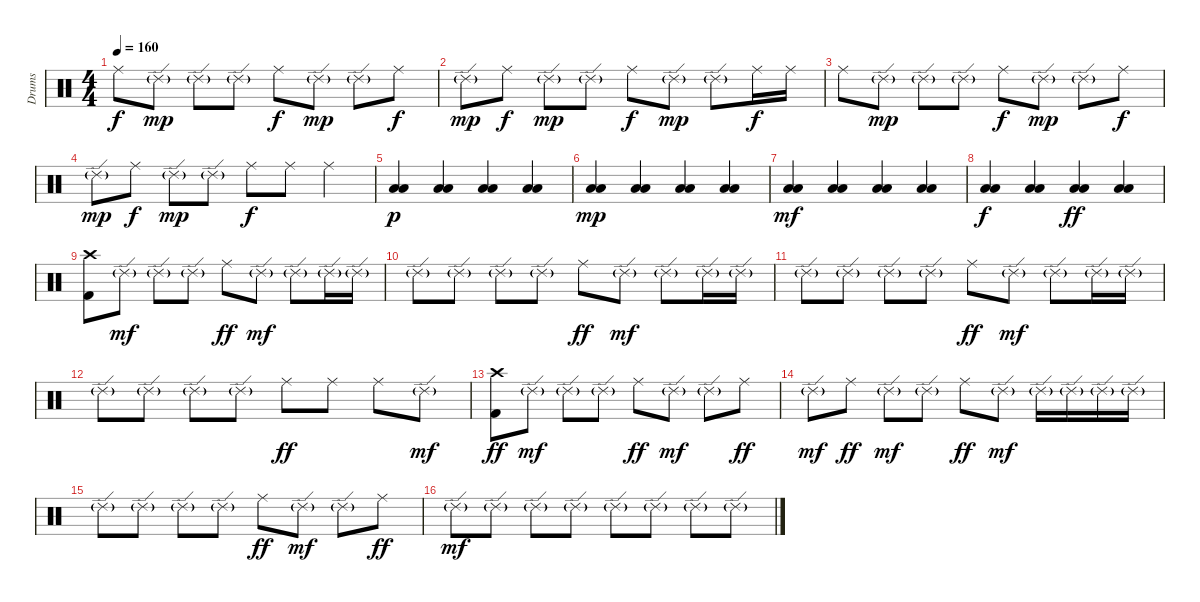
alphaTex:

\track ("Drums" "Drums") {instrument percussion}
\staff {score}
\articulation defaults
\ts (4 4)
\tempo 160
\clef neutral
\ks c "Ride (middle)".8{dy f} "Ride (edge) 2"{g}.8{dy mp} "Ride (edge) 2"{g}.8 "Ride (edge) 2"{g}.8 "Ride (middle)".8{dy f} "Ride (edge) 2"{g}.8{dy mp} "Ride (edge) 2"{g}.8 "Ride (middle)".8{dy f}
|
"Ride (edge) 2"{g}.8{dy mp} "Ride (middle)".8{dy f} "Ride (edge) 2"{g}.8{dy mp} "Ride (edge) 2"{g}.8 "Ride (middle)".8{dy f} "Ride (edge) 2"{g}.8{dy mp} "Ride (edge) 2"{g}.8 "Ride (middle)".16{dy f} "Ride (middle)".16 |
"Ride (middle)".8 "Ride (edge) 2"{g}.8{dy mp} "Ride (edge) 2"{g}.8 "Ride (edge) 2"{g}.8 "Ride (middle)".8{dy f} "Ride (edge) 2"{g}.8{dy mp} "Ride (edge) 2"{g}.8 "Ride (middle)".8{dy f} |
"Ride (edge) 2"{g}.8{dy mp} "Ride (middle)".8{dy f} "Ride (edge) 2"{g}.8{dy mp} "Ride (edge) 2"{g}.8 "Ride (middle)".8{dy f} "Ride (middle)".8 "Ride (middle)".4 |
("Low Tom (hit)" "Low Floor Tom (hit)").4{dy p} ("Low Tom (hit)" "Low Floor Tom (hit)").4 ("Low Tom (hit)" "Low Floor Tom (hit)").4 ("Low Tom (hit)" "Low Floor Tom (hit)").4 |
("Low Tom (hit)" "Low Floor Tom (hit)").4{dy mp} ("Low Tom (hit)" "Low Floor Tom (hit)").4 ("Low Tom (hit)" "Low Floor Tom (hit)").4 ("Low Tom (hit)" "Low Floor Tom (hit)").4 |
("Low Tom (hit)" "Low Floor Tom (hit)").4{dy mf} ("Low Tom (hit)" "Low Floor Tom (hit)").4 ("Low Tom (hit)" "Low Floor Tom (hit)").4 ("Low Tom (hit)" "Low Floor Tom (hit)").4 |
("Low Tom (hit)" "Low Floor Tom (hit)").4{dy f} ("Low Tom (hit)" "Low Floor Tom (hit)").4 ("Low Tom (hit)" "Low Floor Tom (hit)").4{dy ff} ("Low Tom (hit)" "Low Floor Tom (hit)").4 |
("Crash high (hit)" "Kick (hit) 2").8 "Ride (edge) 2"{g}.8{dy mf} "Ride (edge) 2"{g}.8 "Ride (edge) 2"{g}.8 "Ride (middle)".8{dy ff} "Ride (edge) 2"{g}.8{dy mf} "Ride (edge) 2"{g}.8 "Ride (edge) 2"{g}.16 "Ride (edge) 2"{g}.16 |
"Ride (edge) 2"{g}.8 "Ride (edge) 2"{g}.8 "Ride (edge) 2"{g}.8 "Ride (edge) 2"{g}.8 "Ride (middle)".8{dy ff} "Ride (edge) 2"{g}.8{dy mf} "Ride (edge) 2"{g}.8 "Ride (edge) 2"{g}.16 "Ride (edge) 2"{g}.16 |
"Ride (edge) 2"{g}.8 "Ride (edge) 2"{g}.8 "Ride (edge) 2"{g}.8 "Ride (edge) 2"{g}.8 "Ride (middle)".8{dy ff} "Ride (edge) 2"{g}.8{dy mf} "Ride (edge) 2"{g}.8 "Ride (edge) 2"{g}.16 "Ride (edge) 2"{g}.16 |
"Ride (edge) 2"{g}.8 "Ride (edge) 2"{g}.8 "Ride (edge) 2"{g}.8 "Ride (edge) 2"{g}.8 "Ride (middle)".8{dy ff} "Ride (middle)".8 "Ride (middle)".8 "Ride (edge) 2"{g}.8{dy mf} |
("Crash high (hit)" "Kick (hit) 2").8{dy ff} "Ride (edge) 2"{g}.8{dy mf} "Ride (edge) 2"{g}.8 "Ride (edge) 2"{g}.8 "Ride (middle)".8{dy ff} "Ride (edge) 2"{g}.8{dy mf} "Ride (edge) 2"{g}.8 "Ride (middle)".8{dy ff} |
"Ride (edge) 2"{g}.8{dy mf} "Ride (middle)".8{dy ff} "Ride (edge) 2"{g}.8{dy mf} "Ride (edge) 2"{g}.8 "Ride (middle)".8{dy ff} "Ride (edge) 2"{g}.8{dy mf} "Ride (edge) 2"{g}.16 "Ride (edge) 2"{g}.16 "Ride (edge) 2"{g}.16 "Ride (edge) 2"{g}.16 |
"Ride (edge) 2"{g}.8 "Ride (edge) 2"{g}.8 "Ride (edge) 2"{g}.8 "Ride (edge) 2"{g}.8 "Ride (middle)".8{dy ff} "Ride (edge) 2"{g}.8{dy mf} "Ride (edge) 2"{g}.8 "Ride (middle)".8{dy ff} |
"Ride (edge) 2"{g}.8{dy mf} "Ride (edge) 2"{g}.8 "Ride (edge) 2"{g}.8 "Ride (edge) 2"{g}.8 "Ride (edge) 2"{g}.8 "Ride (edge) 2"{g}.8 "Ride (edge) 2"{g}.8 "Ride (edge) 2"{g}.8
